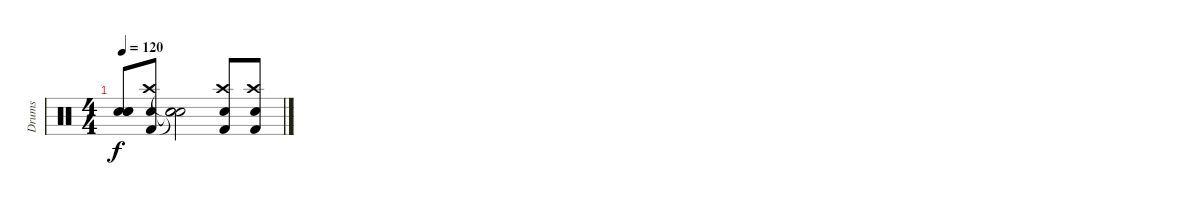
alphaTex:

\track ("Drums" "Drums") {instrument percussion}
\staff {score}
\articulation defaults
\ts (4 4)
\tempo 120
\clef neutral
\ks c
("Snare (hit)"{t} "Snare (hit)"{t} "Snare (hit)"{t}).8{dy f} ("Crash high (hit)" "Snare (hit) 2" "Kick (hit) 2").8 ("Snare (hit)"{t} "Snare (hit)"{t} "Snare (hit)"{t}).2 ("Crash high (hit)" "Snare (hit) 2" "Kick (hit) 2").8 ("Crash high (hit)" "Snare (hit) 2" "Kick (hit) 2").8
